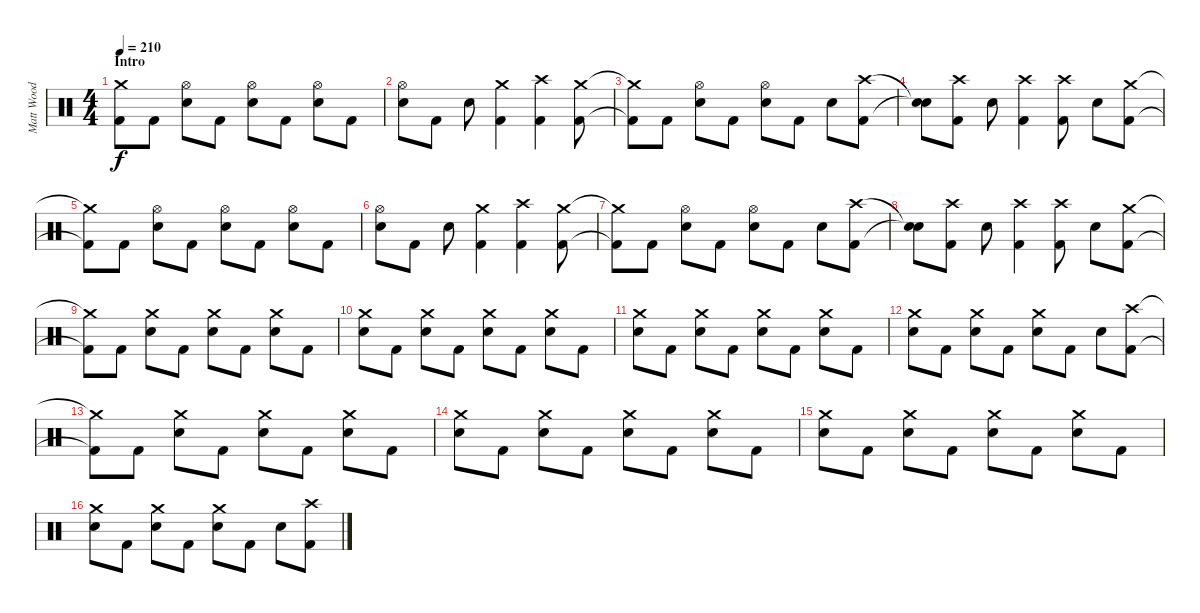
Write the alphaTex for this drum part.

\track ("Matt Wood" "Matt Wood") {instrument percussion}
\staff {score}
\articulation defaults
\ts (4 4)
\section ("" "Intro")
\tempo 210
\clef neutral
\ks c
("Crash medium (hit)" "Kick (hit) 2").8{dy f} "Kick (hit) 2".8 ("Hi-Hat (open)" "Snare (hit) 2").8 "Kick (hit) 2".8 ("Hi-Hat (open)" "Snare (hit) 2").8 "Kick (hit) 2".8 ("Hi-Hat (open)" "Snare (hit) 2").8 "Kick (hit) 2".8 |
("Hi-Hat (open)" "Snare (hit) 2").8 "Kick (hit) 2".8 "Snare (hit) 2".8 ("Crash medium (hit)" "Kick (hit) 2").4 ("Crash high (hit)" "Kick (hit) 2").4 ("Crash medium (hit)" "Kick (hit) 2").8 |
("Crash medium (hit)"{t} "Kick (hit) 2"{t}).8 "Kick (hit) 2".8 ("Hi-Hat (open)" "Snare (hit) 2").8 "Kick (hit) 2".8 ("Hi-Hat (open)" "Snare (hit) 2").8 "Kick (hit) 2".8 "Snare (hit) 2".8 ("Crash high (hit)" "Kick (hit) 2").8 |
("Snare (hit)"{t} "Snare (hit)"{t}).8 ("Crash high (hit)" "Kick (hit) 2").8 "Snare (hit) 2".8 ("Crash high (hit)" "Kick (hit) 2").4 ("Crash high (hit)" "Kick (hit) 2").8 "Snare (hit) 2".8 ("Crash medium (hit)" "Kick (hit) 2").8 |
("Crash medium (hit)"{t} "Kick (hit) 2"{t}).8 "Kick (hit) 2".8 ("Hi-Hat (open)" "Snare (hit) 2").8 "Kick (hit) 2".8 ("Hi-Hat (open)" "Snare (hit) 2").8 "Kick (hit) 2".8 ("Hi-Hat (open)" "Snare (hit) 2").8 "Kick (hit) 2".8 |
("Hi-Hat (open)" "Snare (hit) 2").8 "Kick (hit) 2".8 "Snare (hit) 2".8 ("Crash medium (hit)" "Kick (hit) 2").4 ("Crash high (hit)" "Kick (hit) 2").4 ("Crash medium (hit)" "Kick (hit) 2").8 |
("Crash medium (hit)"{t} "Kick (hit) 2"{t}).8 "Kick (hit) 2".8 ("Hi-Hat (open)" "Snare (hit) 2").8 "Kick (hit) 2".8 ("Hi-Hat (open)" "Snare (hit) 2").8 "Kick (hit) 2".8 "Snare (hit) 2".8 ("Crash high (hit)" "Kick (hit) 2").8 |
("Snare (hit)"{t} "Snare (hit)"{t}).8 ("Crash high (hit)" "Kick (hit) 2").8 "Snare (hit) 2".8 ("Crash high (hit)" "Kick (hit) 2").4 ("Crash high (hit)" "Kick (hit) 2").8 "Snare (hit) 2".8 ("Crash medium (hit)" "Kick (hit) 2").8 |
("Crash medium (hit)"{t} "Kick (hit) 2"{t}).8 "Kick (hit) 2".8 ("Crash medium (hit)" "Snare (hit) 2").8 "Kick (hit) 2".8 ("Crash medium (hit)" "Snare (hit) 2").8 "Kick (hit) 2".8 ("Crash medium (hit)" "Snare (hit) 2").8 "Kick (hit) 2".8 |
("Crash medium (hit)" "Snare (hit) 2").8 "Kick (hit) 2".8 ("Crash medium (hit)" "Snare (hit) 2").8 "Kick (hit) 2".8 ("Crash medium (hit)" "Snare (hit) 2").8 "Kick (hit) 2".8 ("Crash medium (hit)" "Snare (hit) 2").8 "Kick (hit) 2".8 |
("Crash medium (hit)" "Snare (hit) 2").8 "Kick (hit) 2".8 ("Crash medium (hit)" "Snare (hit) 2").8 "Kick (hit) 2".8 ("Crash medium (hit)" "Snare (hit) 2").8 "Kick (hit) 2".8 ("Crash medium (hit)" "Snare (hit) 2").8 "Kick (hit) 2".8 |
("Crash medium (hit)" "Snare (hit) 2").8 "Kick (hit) 2".8 ("Crash medium (hit)" "Snare (hit) 2").8 "Kick (hit) 2".8 ("Crash medium (hit)" "Snare (hit) 2").8 "Kick (hit) 2".8 "Snare (hit) 2".8 ("Crash high (hit)" "Kick (hit) 2").8 |
("Crash medium (hit)"{t} "Kick (hit) 2"{t}).8 "Kick (hit) 2".8 ("Crash medium (hit)" "Snare (hit) 2").8 "Kick (hit) 2".8 ("Crash medium (hit)" "Snare (hit) 2").8 "Kick (hit) 2".8 ("Crash medium (hit)" "Snare (hit) 2").8 "Kick (hit) 2".8 |
("Crash medium (hit)" "Snare (hit) 2").8 "Kick (hit) 2".8 ("Crash medium (hit)" "Snare (hit) 2").8 "Kick (hit) 2".8 ("Crash medium (hit)" "Snare (hit) 2").8 "Kick (hit) 2".8 ("Crash medium (hit)" "Snare (hit) 2").8 "Kick (hit) 2".8 |
("Crash medium (hit)" "Snare (hit) 2").8 "Kick (hit) 2".8 ("Crash medium (hit)" "Snare (hit) 2").8 "Kick (hit) 2".8 ("Crash medium (hit)" "Snare (hit) 2").8 "Kick (hit) 2".8 ("Crash medium (hit)" "Snare (hit) 2").8 "Kick (hit) 2".8 |
("Crash medium (hit)" "Snare (hit) 2").8 "Kick (hit) 2".8 ("Crash medium (hit)" "Snare (hit) 2").8 "Kick (hit) 2".8 ("Crash medium (hit)" "Snare (hit) 2").8 "Kick (hit) 2".8 "Snare (hit) 2".8 ("Crash high (hit)" "Kick (hit) 2").8
